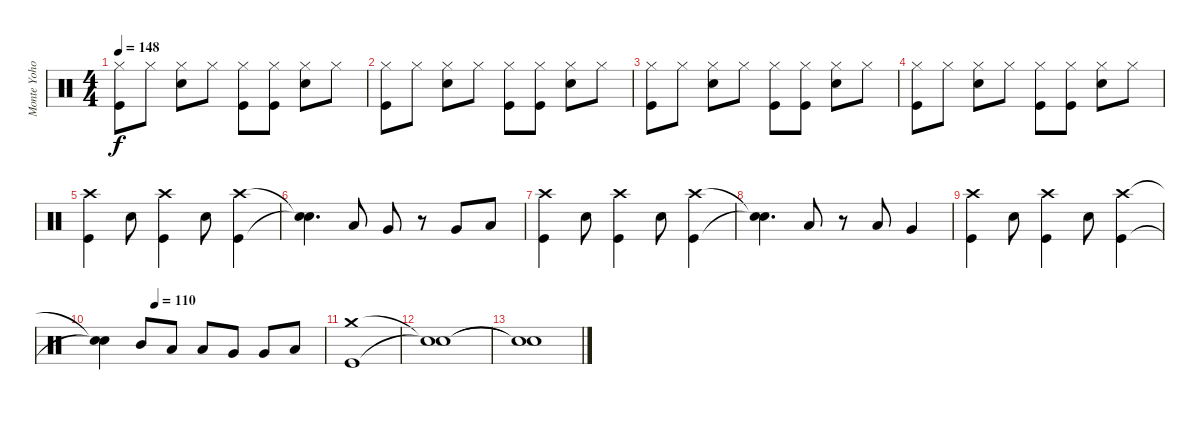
\track ("Monte Yoho Drums" "Monte Yoho") {instrument percussion}
\staff {score}
\articulation defaults
\ts (4 4)
\tempo 148
\clef neutral
\ks c
("Hi-Hat (closed)" "Kick (hit)").8{dy f} "Hi-Hat (closed)".8 ("Hi-Hat (closed)" "Snare (hit) 2").8 "Hi-Hat (closed)".8 ("Hi-Hat (closed)" "Kick (hit)").8 ("Hi-Hat (closed)" "Kick (hit)").8 ("Hi-Hat (closed)" "Snare (hit) 2").8 "Hi-Hat (closed)".8 |
("Hi-Hat (closed)" "Kick (hit)").8 "Hi-Hat (closed)".8 ("Hi-Hat (closed)" "Snare (hit) 2").8 "Hi-Hat (closed)".8 ("Hi-Hat (closed)" "Kick (hit)").8 ("Hi-Hat (closed)" "Kick (hit)").8 ("Hi-Hat (closed)" "Snare (hit) 2").8 "Hi-Hat (closed)".8 |
("Hi-Hat (closed)" "Kick (hit)").8 "Hi-Hat (closed)".8 ("Hi-Hat (closed)" "Snare (hit) 2").8 "Hi-Hat (closed)".8 ("Hi-Hat (closed)" "Kick (hit)").8 ("Hi-Hat (closed)" "Kick (hit)").8 ("Hi-Hat (closed)" "Snare (hit) 2").8 "Hi-Hat (closed)".8 |
("Hi-Hat (closed)" "Kick (hit)").8 "Hi-Hat (closed)".8 ("Hi-Hat (closed)" "Snare (hit) 2").8 "Hi-Hat (closed)".8 ("Hi-Hat (closed)" "Kick (hit)").8 ("Hi-Hat (closed)" "Kick (hit)").8 ("Hi-Hat (closed)" "Snare (hit) 2").8 "Hi-Hat (closed)".8 |
("Crash high (hit)" "Kick (hit)").4 "Snare (hit) 2".8 ("Crash high (hit)" "Kick (hit)").4 "Snare (hit) 2".8 ("Crash high (hit)" "Kick (hit)").4 |
("Snare (hit)"{t} "Snare (hit)"{t}).4{d} "Low Tom (hit)".8 "Very Low Tom (hit)".8 r.8 "Very Low Tom (hit)".8 "Low Floor Tom (hit)".8 |
("Crash high (hit)" "Kick (hit)").4 "Snare (hit) 2".8 ("Crash high (hit)" "Kick (hit)").4 "Snare (hit) 2".8 ("Crash high (hit)" "Kick (hit)").4 |
("Snare (hit)"{t} "Snare (hit)"{t}).4{d} "Low Tom (hit)".8 r.8 "Low Tom (hit)".8 "Very Low Tom (hit)".4 |
("Crash high (hit)" "Kick (hit)").4 "Snare (hit) 2".8 ("Crash high (hit)" "Kick (hit)").4 "Snare (hit) 2".8 ("Crash high (hit)" "Kick (hit)").4 |
\tempo (110 0.25)
("Snare (hit)"{t} "Snare (hit)"{t}).4 "Mid Tom (hit)".8 "Low Tom (hit)".8 "Low Tom (hit)".8 "Very Low Tom (hit)".8 "Very Low Tom (hit)".8 "Low Floor Tom (hit)".8 |
("Crash medium (hit)" "Kick (hit)").1 |
("Snare (hit)"{t} "Snare (hit)"{t}).1 |
("Snare (hit)"{t} "Snare (hit)"{t}).1
